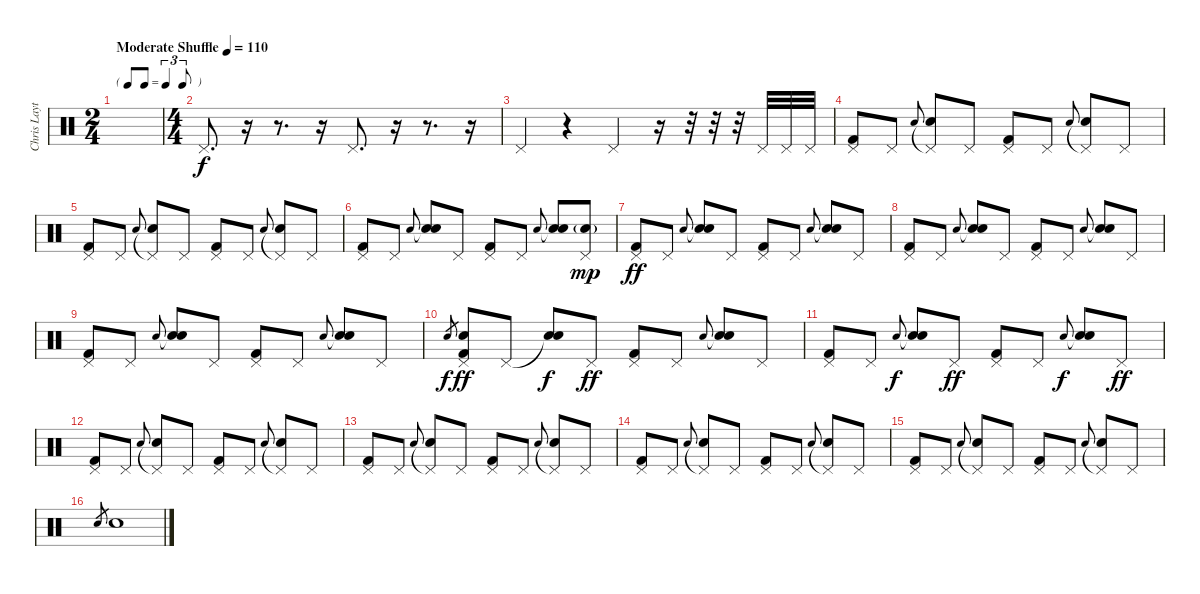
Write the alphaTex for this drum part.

\track ("Chris Layton" "Chris Layt") {instrument percussion}
\staff {score}
\articulation defaults
\ts (2 4)
\tf triplet8th
\tempo (110 "Moderate Shuffle")
\clef neutral
\ks c
|
\ts (4 4)
"Pedal Hi-Hat (hit)".8{d} r.16 r.8{d} r.16 "Pedal Hi-Hat (hit)".8{d} r.16 r.8{d} r.16 |
"Pedal Hi-Hat (hit)".4 r.4 "Pedal Hi-Hat (hit)".4 r.16 r.32 r.32 r.32 "Pedal Hi-Hat (hit)".32 "Pedal Hi-Hat (hit)".32 "Pedal Hi-Hat (hit)".32 |
("Pedal Hi-Hat (hit)" "Kick (hit) 2").8 "Pedal Hi-Hat (hit)".8 "Snare (hit) 2".8{gr onbeat} ("Pedal Hi-Hat (hit)"{t} "Snare (hit) 2").8 "Pedal Hi-Hat (hit)".8 ("Pedal Hi-Hat (hit)" "Kick (hit) 2").8 "Pedal Hi-Hat (hit)".8 "Snare (hit) 2".8{gr onbeat} ("Pedal Hi-Hat (hit)"{t} "Snare (hit) 2").8 "Pedal Hi-Hat (hit)".8 |
("Pedal Hi-Hat (hit)" "Kick (hit) 2").8 "Pedal Hi-Hat (hit)".8 "Snare (hit) 2".8{gr onbeat} ("Pedal Hi-Hat (hit)"{t} "Snare (hit) 2").8 "Pedal Hi-Hat (hit)".8 ("Pedal Hi-Hat (hit)" "Kick (hit) 2").8 "Pedal Hi-Hat (hit)".8 "Snare (hit) 2".8{gr onbeat} ("Pedal Hi-Hat (hit)"{t} "Snare (hit) 2").8 "Pedal Hi-Hat (hit)".8 |
("Pedal Hi-Hat (hit)" "Kick (hit) 2").8 "Pedal Hi-Hat (hit)".8 "Snare (hit) 2".8{gr onbeat} ("Snare (hit)"{t} "Snare (hit) 2").8 "Pedal Hi-Hat (hit)".8 ("Pedal Hi-Hat (hit)" "Kick (hit) 2").8 "Pedal Hi-Hat (hit)".8 "Snare (hit) 2".8{gr onbeat} ("Snare (hit)"{t} "Snare (hit) 2").8 ("Pedal Hi-Hat (hit)" "Snare (hit) 2"{g}).8{dy mp} |
("Pedal Hi-Hat (hit)" "Kick (hit) 2").8{dy ff} "Pedal Hi-Hat (hit)".8 "Snare (hit) 2".8{gr onbeat} ("Snare (hit)"{t} "Snare (hit) 2").8 "Pedal Hi-Hat (hit)".8 ("Pedal Hi-Hat (hit)" "Kick (hit) 2").8 "Pedal Hi-Hat (hit)".8 "Snare (hit) 2".8{gr onbeat} ("Snare (hit)"{t} "Snare (hit) 2").8 "Pedal Hi-Hat (hit)".8 |
("Pedal Hi-Hat (hit)" "Kick (hit) 2").8 "Pedal Hi-Hat (hit)".8 "Snare (hit) 2".8{gr onbeat} ("Snare (hit)"{t} "Snare (hit) 2").8 "Pedal Hi-Hat (hit)".8 ("Pedal Hi-Hat (hit)" "Kick (hit) 2").8 "Pedal Hi-Hat (hit)".8 "Snare (hit) 2".8{gr onbeat} ("Snare (hit)"{t} "Snare (hit) 2").8 "Pedal Hi-Hat (hit)".8 |
("Pedal Hi-Hat (hit)" "Kick (hit) 2").8 "Pedal Hi-Hat (hit)".8 "Snare (hit) 2".8{gr onbeat} ("Snare (hit)"{t} "Snare (hit) 2").8 "Pedal Hi-Hat (hit)".8 ("Pedal Hi-Hat (hit)" "Kick (hit) 2").8 "Pedal Hi-Hat (hit)".8 "Snare (hit) 2".8{gr onbeat} ("Snare (hit)"{t} "Snare (hit) 2").8 "Pedal Hi-Hat (hit)".8 |
"Snare (hit) 2".8{gr dy f} ("Pedal Hi-Hat (hit)" "Snare (hit) 2" "Kick (hit) 2").8{dy ff} "Pedal Hi-Hat (hit)".8 ("Snare (hit)"{t} "Snare (hit) 2").8{dy f} "Pedal Hi-Hat (hit)".8{dy ff} ("Pedal Hi-Hat (hit)" "Kick (hit) 2").8 "Pedal Hi-Hat (hit)".8 "Snare (hit) 2".8{gr onbeat} ("Snare (hit)"{t} "Snare (hit) 2").8 "Pedal Hi-Hat (hit)".8 |
("Pedal Hi-Hat (hit)" "Kick (hit) 2").8 "Pedal Hi-Hat (hit)".8 "Snare (hit) 2".8{gr onbeat dy f} ("Snare (hit)"{t} "Snare (hit) 2").8 "Pedal Hi-Hat (hit)".8{dy ff} ("Pedal Hi-Hat (hit)" "Kick (hit) 2").8 "Pedal Hi-Hat (hit)".8 "Snare (hit) 2".8{gr onbeat dy f} ("Snare (hit)"{t} "Snare (hit) 2").8 "Pedal Hi-Hat (hit)".8{dy ff} |
("Pedal Hi-Hat (hit)" "Kick (hit) 2").8 "Pedal Hi-Hat (hit)".8 "Snare (hit) 2".8{gr onbeat} ("Pedal Hi-Hat (hit)"{t} "Snare (hit) 2").8 "Pedal Hi-Hat (hit)".8 ("Pedal Hi-Hat (hit)" "Kick (hit) 2").8 "Pedal Hi-Hat (hit)".8 "Snare (hit) 2".8{gr onbeat} ("Pedal Hi-Hat (hit)"{t} "Snare (hit) 2").8 "Pedal Hi-Hat (hit)".8 |
("Pedal Hi-Hat (hit)" "Kick (hit) 2").8 "Pedal Hi-Hat (hit)".8 "Snare (hit) 2".8{gr onbeat} ("Pedal Hi-Hat (hit)"{t} "Snare (hit) 2").8 "Pedal Hi-Hat (hit)".8 ("Pedal Hi-Hat (hit)" "Kick (hit) 2").8 "Pedal Hi-Hat (hit)".8 "Snare (hit) 2".8{gr onbeat} ("Pedal Hi-Hat (hit)"{t} "Snare (hit) 2").8 "Pedal Hi-Hat (hit)".8 |
("Pedal Hi-Hat (hit)" "Kick (hit) 2").8 "Pedal Hi-Hat (hit)".8 "Snare (hit) 2".8{gr onbeat} ("Pedal Hi-Hat (hit)"{t} "Snare (hit) 2").8 "Pedal Hi-Hat (hit)".8 ("Pedal Hi-Hat (hit)" "Kick (hit) 2").8 "Pedal Hi-Hat (hit)".8 "Snare (hit) 2".8{gr onbeat} ("Pedal Hi-Hat (hit)"{t} "Snare (hit) 2").8 "Pedal Hi-Hat (hit)".8 |
("Pedal Hi-Hat (hit)" "Kick (hit) 2").8 "Pedal Hi-Hat (hit)".8 "Snare (hit) 2".8{gr onbeat} ("Pedal Hi-Hat (hit)"{t} "Snare (hit) 2").8 "Pedal Hi-Hat (hit)".8 ("Pedal Hi-Hat (hit)" "Kick (hit) 2").8 "Pedal Hi-Hat (hit)".8 "Snare (hit) 2".8{gr onbeat} ("Pedal Hi-Hat (hit)"{t} "Snare (hit) 2").8 "Pedal Hi-Hat (hit)".8 |
"Snare (hit) 2".8{gr} "Snare (hit) 2".1
